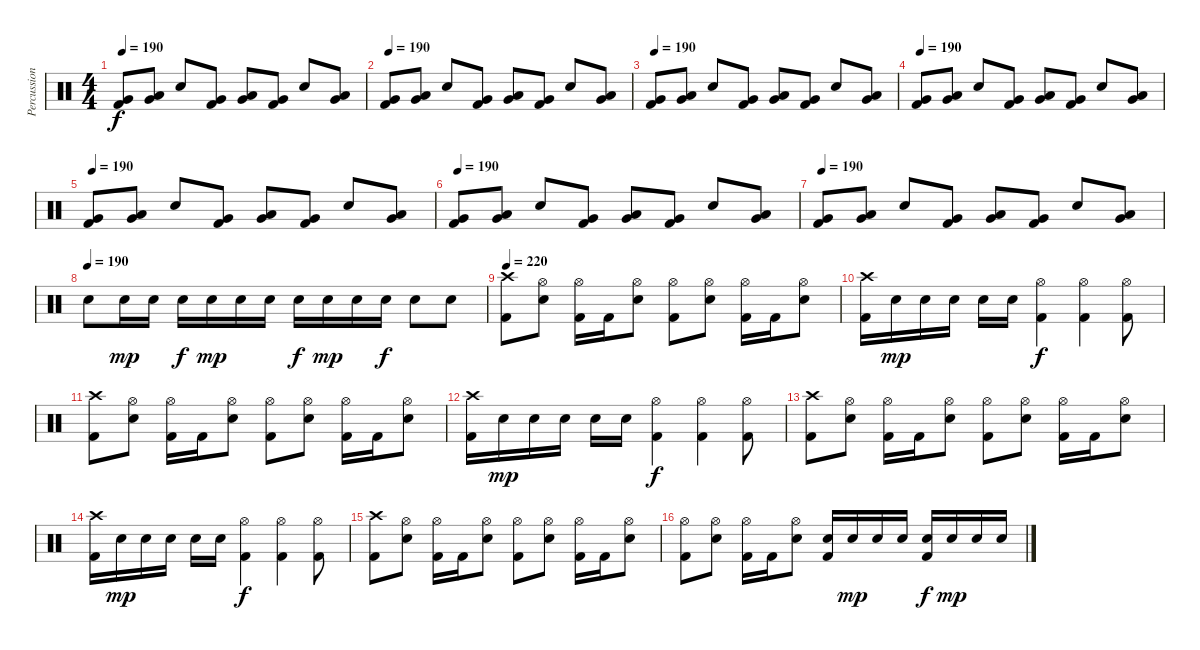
\track ("Percussions" "Percussion") {instrument percussion}
\staff {score}
\articulation defaults
\ts (4 4)
\tempo 190
\clef neutral
\ks c
("Very Low Tom (hit)" "Kick (hit) 2").8{dy f} ("Very Low Tom (hit)" "Low Tom (hit)").8 "Snare (hit) 2".8 ("Very Low Tom (hit)" "Kick (hit) 2").8 ("Very Low Tom (hit)" "Low Tom (hit)").8 ("Very Low Tom (hit)" "Kick (hit) 2").8 "Snare (hit) 2".8 ("Very Low Tom (hit)" "Low Tom (hit)").8 |
\tempo 190
("Very Low Tom (hit)" "Kick (hit) 2").8 ("Very Low Tom (hit)" "Low Tom (hit)").8 "Snare (hit) 2".8 ("Very Low Tom (hit)" "Kick (hit) 2").8 ("Very Low Tom (hit)" "Low Tom (hit)").8 ("Very Low Tom (hit)" "Kick (hit) 2").8 "Snare (hit) 2".8 ("Very Low Tom (hit)" "Low Tom (hit)").8 |
\tempo 190
("Very Low Tom (hit)" "Kick (hit) 2").8 ("Very Low Tom (hit)" "Low Tom (hit)").8 "Snare (hit) 2".8 ("Very Low Tom (hit)" "Kick (hit) 2").8 ("Very Low Tom (hit)" "Low Tom (hit)").8 ("Very Low Tom (hit)" "Kick (hit) 2").8 "Snare (hit) 2".8 ("Very Low Tom (hit)" "Low Tom (hit)").8 |
\tempo 190
("Very Low Tom (hit)" "Kick (hit) 2").8 ("Very Low Tom (hit)" "Low Tom (hit)").8 "Snare (hit) 2".8 ("Very Low Tom (hit)" "Kick (hit) 2").8 ("Very Low Tom (hit)" "Low Tom (hit)").8 ("Very Low Tom (hit)" "Kick (hit) 2").8 "Snare (hit) 2".8 ("Very Low Tom (hit)" "Low Tom (hit)").8 |
\tempo 190
("Very Low Tom (hit)" "Kick (hit) 2").8 ("Very Low Tom (hit)" "Low Tom (hit)").8 "Snare (hit) 2".8 ("Very Low Tom (hit)" "Kick (hit) 2").8 ("Very Low Tom (hit)" "Low Tom (hit)").8 ("Very Low Tom (hit)" "Kick (hit) 2").8 "Snare (hit) 2".8 ("Very Low Tom (hit)" "Low Tom (hit)").8 |
\tempo 190
("Very Low Tom (hit)" "Kick (hit) 2").8 ("Very Low Tom (hit)" "Low Tom (hit)").8 "Snare (hit) 2".8 ("Very Low Tom (hit)" "Kick (hit) 2").8 ("Very Low Tom (hit)" "Low Tom (hit)").8 ("Very Low Tom (hit)" "Kick (hit) 2").8 "Snare (hit) 2".8 ("Very Low Tom (hit)" "Low Tom (hit)").8 |
\tempo 190
("Very Low Tom (hit)" "Kick (hit) 2").8 ("Very Low Tom (hit)" "Low Tom (hit)").8 "Snare (hit) 2".8 ("Very Low Tom (hit)" "Kick (hit) 2").8 ("Very Low Tom (hit)" "Low Tom (hit)").8 ("Very Low Tom (hit)" "Kick (hit) 2").8 "Snare (hit) 2".8 ("Very Low Tom (hit)" "Low Tom (hit)").8 |
\tempo (190)
"Snare (hit) 2".8 "Snare (hit) 2".16{dy mp} "Snare (hit) 2".16 "Snare (hit) 2".16{dy f} "Snare (hit) 2".16{dy mp} "Snare (hit) 2".16 "Snare (hit) 2".16 "Snare (hit) 2".16{dy f} "Snare (hit) 2".16{dy mp} "Snare (hit) 2".16 "Snare (hit) 2".16{dy f} "Snare (hit) 2".8 "Snare (hit) 2".8 |
\tempo 220
("Crash high (hit)" "Kick (hit) 2").8 ("Hi-Hat (open)" "Snare (hit) 2").8 ("Hi-Hat (open)" "Kick (hit) 2").16 "Kick (hit) 2".16 ("Hi-Hat (open)" "Snare (hit) 2").8 ("Hi-Hat (open)" "Kick (hit) 2").8 ("Hi-Hat (open)" "Snare (hit) 2").8 ("Hi-Hat (open)" "Kick (hit) 2").16 "Kick (hit) 2".16 ("Hi-Hat (open)" "Snare (hit) 2").8 |
("Crash high (hit)" "Kick (hit) 2").16 "Snare (hit) 2".16{dy mp} "Snare (hit) 2".16 "Snare (hit) 2".16 "Snare (hit) 2".16 "Snare (hit) 2".16 ("Hi-Hat (open)" "Kick (hit) 2").4{dy f} ("Hi-Hat (open)" "Kick (hit) 2").4 ("Hi-Hat (open)" "Kick (hit) 2").8 |
("Crash high (hit)" "Kick (hit) 2").8 ("Hi-Hat (open)" "Snare (hit) 2").8 ("Hi-Hat (open)" "Kick (hit) 2").16 "Kick (hit) 2".16 ("Hi-Hat (open)" "Snare (hit) 2").8 ("Hi-Hat (open)" "Kick (hit) 2").8 ("Hi-Hat (open)" "Snare (hit) 2").8 ("Hi-Hat (open)" "Kick (hit) 2").16 "Kick (hit) 2".16 ("Hi-Hat (open)" "Snare (hit) 2").8 |
("Crash high (hit)" "Kick (hit) 2").16 "Snare (hit) 2".16{dy mp} "Snare (hit) 2".16 "Snare (hit) 2".16 "Snare (hit) 2".16 "Snare (hit) 2".16 ("Hi-Hat (open)" "Kick (hit) 2").4{dy f} ("Hi-Hat (open)" "Kick (hit) 2").4 ("Hi-Hat (open)" "Kick (hit) 2").8 |
("Crash high (hit)" "Kick (hit) 2").8 ("Hi-Hat (open)" "Snare (hit) 2").8 ("Hi-Hat (open)" "Kick (hit) 2").16 "Kick (hit) 2".16 ("Hi-Hat (open)" "Snare (hit) 2").8 ("Hi-Hat (open)" "Kick (hit) 2").8 ("Hi-Hat (open)" "Snare (hit) 2").8 ("Hi-Hat (open)" "Kick (hit) 2").16 "Kick (hit) 2".16 ("Hi-Hat (open)" "Snare (hit) 2").8 |
("Crash high (hit)" "Kick (hit) 2").16 "Snare (hit) 2".16{dy mp} "Snare (hit) 2".16 "Snare (hit) 2".16 "Snare (hit) 2".16 "Snare (hit) 2".16 ("Hi-Hat (open)" "Kick (hit) 2").4{dy f} ("Hi-Hat (open)" "Kick (hit) 2").4 ("Hi-Hat (open)" "Kick (hit) 2").8 |
("Crash high (hit)" "Kick (hit) 2").8 ("Hi-Hat (open)" "Snare (hit) 2").8 ("Hi-Hat (open)" "Kick (hit) 2").16 "Kick (hit) 2".16 ("Hi-Hat (open)" "Snare (hit) 2").8 ("Hi-Hat (open)" "Kick (hit) 2").8 ("Hi-Hat (open)" "Snare (hit) 2").8 ("Hi-Hat (open)" "Kick (hit) 2").16 "Kick (hit) 2".16 ("Hi-Hat (open)" "Snare (hit) 2").8 |
("Hi-Hat (open)" "Kick (hit) 2").8 ("Hi-Hat (open)" "Snare (hit) 2").8 ("Hi-Hat (open)" "Kick (hit) 2").16 "Kick (hit) 2".16 ("Hi-Hat (open)" "Snare (hit) 2").8 ("Snare (hit) 2" "Kick (hit) 2").16 "Snare (hit) 2".16{dy mp} "Snare (hit) 2".16 "Snare (hit) 2".16 ("Snare (hit) 2" "Kick (hit) 2").16{dy f} "Snare (hit) 2".16{dy mp} "Snare (hit) 2".16 "Snare (hit) 2".16
